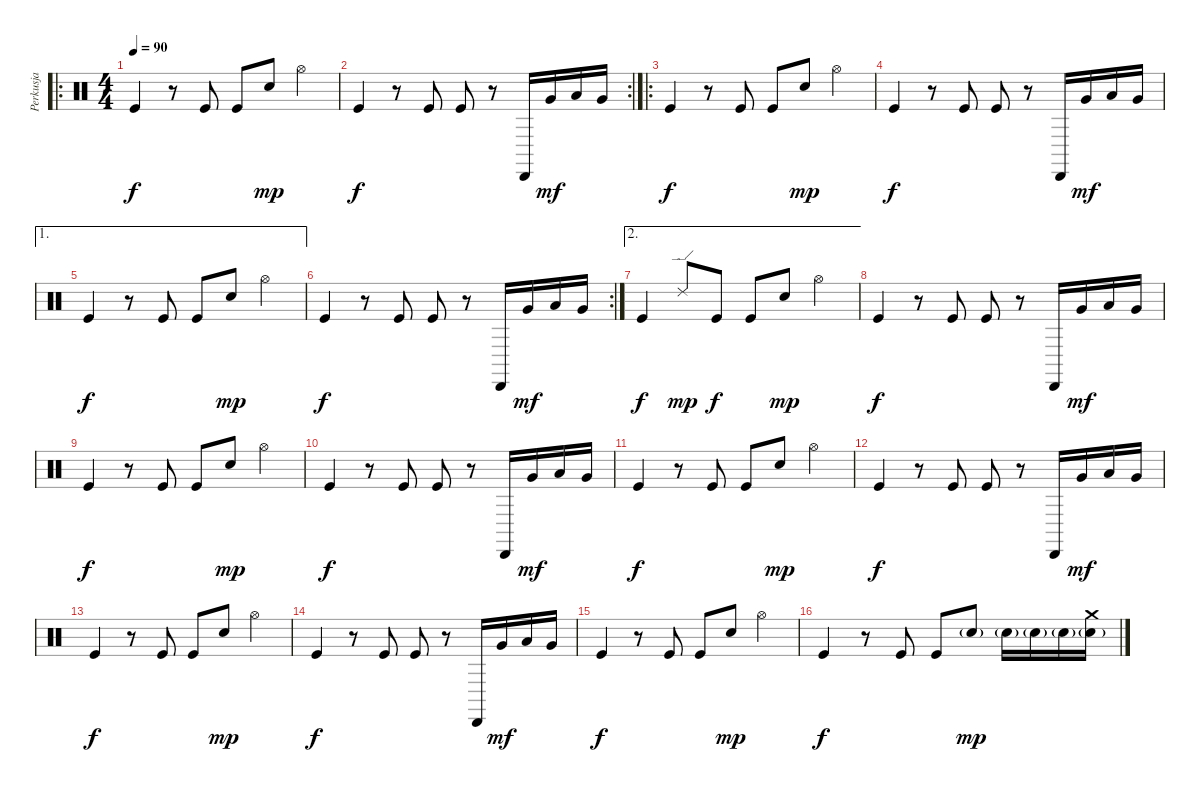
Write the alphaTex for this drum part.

\track ("Perkusja" "Perkusja") {instrument percussion}
\staff {score}
\articulation defaults
\ro
\ts (4 4)
\tempo 90
\clef neutral
\ks c "Kick (hit)".4{dy f}
r.8 "Kick (hit)".8 "Kick (hit)".8 "Snare (hit) 2".8{dy mp} "Hi-Hat (open)".4 |
\rc 2 "Kick (hit)".4{dy f}
r.8 "Kick (hit)".8 "Kick (hit)".8 r.8 "Cabasa (hit)"{x}.16 "Very Low Tom (hit)".16{dy mf} "Low Tom (hit)".16 "Very Low Tom (hit)".16 |
\ro "Kick (hit)".4{dy f}
r.8 "Kick (hit)".8 "Kick (hit)".8 "Snare (hit) 2".8{dy mp} "Hi-Hat (open)".4 |
"Kick (hit)".4{dy f} r.8 "Kick (hit)".8 "Kick (hit)".8 r.8 "Cabasa (hit)"{x}.16 "Very Low Tom (hit)".16{dy mf} "Low Tom (hit)".16 "Very Low Tom (hit)".16 |
\ae 1 "Kick (hit)".4{dy f}
r.8 "Kick (hit)".8 "Kick (hit)".8 "Snare (hit) 2".8{dy mp} "Hi-Hat (open)".4 |
\rc 2 "Kick (hit)".4{dy f}
r.8 "Kick (hit)".8 "Kick (hit)".8 r.8 "Cabasa (hit)"{x}.16 "Very Low Tom (hit)".16{dy mf} "Low Tom (hit)".16 "Very Low Tom (hit)".16 |
\ae 2 "Kick (hit)".4{dy f} "Ride (edge) 2".8{dy mp} "Kick (hit)".8{dy f} "Kick (hit)".8 "Snare (hit) 2".8{dy mp} "Hi-Hat (open)".4
|
"Kick (hit)".4{dy f} r.8 "Kick (hit)".8 "Kick (hit)".8 r.8 "Cabasa (hit)"{x}.16 "Very Low Tom (hit)".16{dy mf} "Low Tom (hit)".16 "Very Low Tom (hit)".16 |
"Kick (hit)".4{dy f} r.8 "Kick (hit)".8 "Kick (hit)".8 "Snare (hit) 2".8{dy mp} "Hi-Hat (open)".4 |
"Kick (hit)".4{dy f} r.8 "Kick (hit)".8 "Kick (hit)".8 r.8 "Cabasa (hit)"{x}.16 "Very Low Tom (hit)".16{dy mf} "Low Tom (hit)".16 "Very Low Tom (hit)".16 |
"Kick (hit)".4{dy f} r.8 "Kick (hit)".8 "Kick (hit)".8 "Snare (hit) 2".8{dy mp} "Hi-Hat (open)".4 |
"Kick (hit)".4{dy f} r.8 "Kick (hit)".8 "Kick (hit)".8 r.8 "Cabasa (hit)"{x}.16 "Very Low Tom (hit)".16{dy mf} "Low Tom (hit)".16 "Very Low Tom (hit)".16 |
"Kick (hit)".4{dy f} r.8 "Kick (hit)".8 "Kick (hit)".8 "Snare (hit) 2".8{dy mp} "Hi-Hat (open)".4 |
"Kick (hit)".4{dy f} r.8 "Kick (hit)".8 "Kick (hit)".8 r.8 "Cabasa (hit)"{x}.16 "Very Low Tom (hit)".16{dy mf} "Low Tom (hit)".16 "Very Low Tom (hit)".16 |
"Kick (hit)".4{dy f} r.8 "Kick (hit)".8 "Kick (hit)".8 "Snare (hit) 2".8{dy mp} "Hi-Hat (open)".4 |
"Kick (hit)".4{dy f} r.8 "Kick (hit)".8 "Kick (hit)".8 "Snare (hit) 2"{g}.8{dy mp} "Snare (hit) 2"{g}.16 "Snare (hit) 2"{g}.16 "Snare (hit) 2"{g}.16 ("Crash medium (hit)" "Snare (hit) 2"{g}).16
